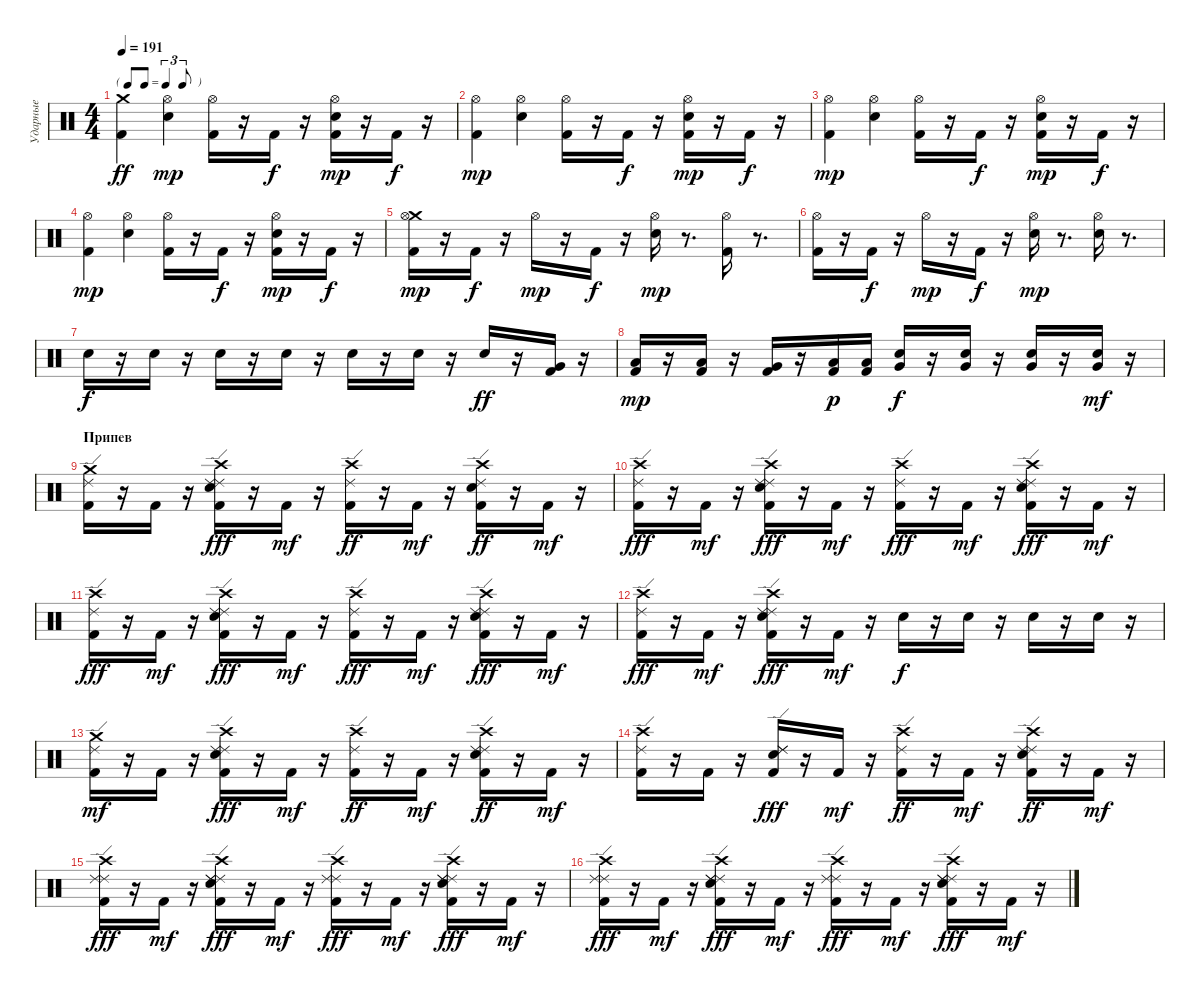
\track ("Ударные" "Ударные") {instrument percussion}
\staff {score}
\articulation defaults
\ts (4 4)
\tf triplet8th
\tempo 191
\clef neutral
\ks c
("Crash medium (hit)" "Kick (hit) 2").4{dy ff} ("Snare (hit) 2" "Hi-Hat (open)").4{dy mp} ("Kick (hit) 2" "Hi-Hat (open)").16 r.16 "Kick (hit) 2".16{dy f} r.16 ("Snare (hit) 2" "Kick (hit) 2" "Hi-Hat (open)").16{dy mp} r.16 "Kick (hit) 2".16{dy f} r.16 |
("Kick (hit) 2" "Hi-Hat (open)").4{dy mp} ("Snare (hit) 2" "Hi-Hat (open)").4 ("Kick (hit) 2" "Hi-Hat (open)").16 r.16 "Kick (hit) 2".16{dy f} r.16 ("Snare (hit) 2" "Kick (hit) 2" "Hi-Hat (open)").16{dy mp} r.16 "Kick (hit) 2".16{dy f} r.16 |
("Kick (hit) 2" "Hi-Hat (open)").4{dy mp} ("Snare (hit) 2" "Hi-Hat (open)").4 ("Kick (hit) 2" "Hi-Hat (open)").16 r.16 "Kick (hit) 2".16{dy f} r.16 ("Snare (hit) 2" "Kick (hit) 2" "Hi-Hat (open)").16{dy mp} r.16 "Kick (hit) 2".16{dy f} r.16 |
("Kick (hit) 2" "Hi-Hat (open)").4{dy mp} ("Snare (hit) 2" "Hi-Hat (open)").4 ("Kick (hit) 2" "Hi-Hat (open)").16 r.16 "Kick (hit) 2".16{dy f} r.16 ("Snare (hit) 2" "Kick (hit) 2" "Hi-Hat (open)").16{dy mp} r.16 "Kick (hit) 2".16{dy f} r.16 |
("Crash medium (hit)" "Kick (hit) 2" "Hi-Hat (open)").16{dy mp} r.16 "Kick (hit) 2".16{dy f} r.16 "Hi-Hat (open)".16{dy mp} r.16 "Kick (hit) 2".16{dy f} r.16 ("Snare (hit) 2" "Hi-Hat (open)").16{dy mp} r.8{d} ("Kick (hit) 2" "Hi-Hat (open)").16 r.8{d} |
("Kick (hit) 2" "Hi-Hat (open)").16 r.16 "Kick (hit) 2".16{dy f} r.16 "Hi-Hat (open)".16{dy mp} r.16 "Kick (hit) 2".16{dy f} r.16 ("Snare (hit) 2" "Hi-Hat (open)").16{dy mp} r.8{d} ("Snare (hit) 2" "Hi-Hat (open)").16 r.8{d} |
"Snare (hit) 2".16{dy f} r.16 "Snare (hit) 2".16 r.16 "Snare (hit) 2".16 r.16 "Snare (hit) 2".16 r.16 "Snare (hit) 2".16 r.16 "Snare (hit) 2".16 r.16 "Snare (hit) 2".16{dy ff} r.16 ("Very Low Tom (hit)" "Kick (hit) 2").16 r.16 |
("Low Tom (hit)" "Kick (hit) 2").16{dy mp} r.16 ("Low Tom (hit)" "Kick (hit) 2").16 r.16 ("Very Low Tom (hit)" "Kick (hit) 2").16 r.16 ("Low Floor Tom (hit)" "Kick (hit) 2").16{dy p} ("Low Floor Tom (hit)" "Kick (hit) 2").16 ("Snare (hit) 2" "Very Low Tom (hit)").16{dy f} r.16 ("Snare (hit) 2" "Very Low Tom (hit)").16 r.16 ("Snare (hit) 2" "Very Low Tom (hit)").16 r.16 ("Snare (hit) 2" "Very Low Tom (hit)").16{dy mf} r.16 |
\section ("" "Припев")
("Crash medium (hit)" "Kick (hit) 2" "Ride (edge) 2").16 r.16 "Kick (hit) 2".16 r.16 ("Crash high (hit)" "Snare (hit) 2" "Kick (hit) 2" "Ride (edge) 2" "Ride (edge) 2").16{dy fff} r.16 "Kick (hit) 2".16{dy mf} r.16 ("Crash high (hit)" "Kick (hit) 2" "Ride (edge) 2").16{dy ff} r.16 "Kick (hit) 2".16{dy mf} r.16 ("Crash high (hit)" "Snare (hit) 2" "Kick (hit) 2" "Ride (edge) 2").16{dy ff} r.16 "Kick (hit) 2".16{dy mf} r.16 |
("Crash high (hit)" "Kick (hit) 2" "Ride (edge) 2").16{dy fff} r.16 "Kick (hit) 2".16{dy mf} r.16 ("Crash high (hit)" "Snare (hit) 2" "Kick (hit) 2" "Ride (edge) 2" "Ride (edge) 2").16{dy fff} r.16 "Kick (hit) 2".16{dy mf} r.16 ("Crash high (hit)" "Kick (hit) 2" "Ride (edge) 2").16{dy fff} r.16 "Kick (hit) 2".16{dy mf} r.16 ("Crash high (hit)" "Snare (hit) 2" "Kick (hit) 2" "Ride (edge) 2" "Ride (edge) 2").16{dy fff} r.16 "Kick (hit) 2".16{dy mf} r.16 |
("Crash high (hit)" "Kick (hit) 2" "Ride (edge) 2").16{dy fff} r.16 "Kick (hit) 2".16{dy mf} r.16 ("Crash high (hit)" "Snare (hit) 2" "Kick (hit) 2" "Ride (edge) 2" "Ride (edge) 2").16{dy fff} r.16 "Kick (hit) 2".16{dy mf} r.16 ("Crash high (hit)" "Kick (hit) 2" "Ride (edge) 2").16{dy fff} r.16 "Kick (hit) 2".16{dy mf} r.16 ("Crash high (hit)" "Snare (hit) 2" "Kick (hit) 2" "Ride (edge) 2" "Ride (edge) 2").16{dy fff} r.16 "Kick (hit) 2".16{dy mf} r.16 |
("Crash high (hit)" "Kick (hit) 2" "Ride (edge) 2").16{dy fff} r.16 "Kick (hit) 2".16{dy mf} r.16 ("Crash high (hit)" "Snare (hit) 2" "Kick (hit) 2" "Ride (edge) 2" "Ride (edge) 2").16{dy fff} r.16 "Kick (hit) 2".16{dy mf} r.16 "Snare (hit) 2".16{dy f} r.16 "Snare (hit) 2".16 r.16 "Snare (hit) 2".16 r.16 "Snare (hit) 2".16 r.16 |
("Crash medium (hit)" "Kick (hit) 2" "Ride (edge) 2").16{dy mf} r.16 "Kick (hit) 2".16 r.16 ("Crash high (hit)" "Snare (hit) 2" "Kick (hit) 2" "Ride (edge) 2" "Ride (edge) 2").16{dy fff} r.16 "Kick (hit) 2".16{dy mf} r.16 ("Crash high (hit)" "Kick (hit) 2" "Ride (edge) 2").16{dy ff} r.16 "Kick (hit) 2".16{dy mf} r.16 ("Crash high (hit)" "Snare (hit) 2" "Kick (hit) 2" "Ride (edge) 2" "Ride (edge) 2").16{dy ff} r.16 "Kick (hit) 2".16{dy mf} r.16 |
("Crash high (hit)" "Kick (hit) 2" "Ride (edge) 2").16 r.16 "Kick (hit) 2".16 r.16 ("Snare (hit) 2" "Kick (hit) 2" "Ride (edge) 2" "Ride (edge) 2").16{dy fff} r.16 "Kick (hit) 2".16{dy mf} r.16 ("Crash high (hit)" "Kick (hit) 2" "Ride (edge) 2").16{dy ff} r.16 "Kick (hit) 2".16{dy mf} r.16 ("Crash high (hit)" "Snare (hit) 2" "Kick (hit) 2" "Ride (edge) 2" "Ride (edge) 2").16{dy ff} r.16 "Kick (hit) 2".16{dy mf} r.16 |
("Crash high (hit)" "Kick (hit) 2" "Ride (edge) 2" "Ride (edge) 2").16{dy fff} r.16 "Kick (hit) 2".16{dy mf} r.16 ("Crash high (hit)" "Snare (hit) 2" "Kick (hit) 2" "Ride (edge) 2" "Ride (edge) 2" "Ride (edge) 2").16{dy fff} r.16 "Kick (hit) 2".16{dy mf} r.16 ("Crash high (hit)" "Kick (hit) 2" "Ride (edge) 2" "Ride (edge) 2").16{dy fff} r.16 "Kick (hit) 2".16{dy mf} r.16 ("Crash high (hit)" "Snare (hit) 2" "Kick (hit) 2" "Ride (edge) 2" "Ride (edge) 2" "Ride (edge) 2").16{dy fff} r.16 "Kick (hit) 2".16{dy mf} r.16 |
("Crash high (hit)" "Kick (hit) 2" "Ride (edge) 2" "Ride (edge) 2").16{dy fff} r.16 "Kick (hit) 2".16{dy mf} r.16 ("Crash high (hit)" "Snare (hit) 2" "Kick (hit) 2" "Ride (edge) 2" "Ride (edge) 2" "Ride (edge) 2").16{dy fff} r.16 "Kick (hit) 2".16{dy mf} r.16 ("Crash high (hit)" "Kick (hit) 2" "Ride (edge) 2" "Ride (edge) 2").16{dy fff} r.16 "Kick (hit) 2".16{dy mf} r.16 ("Crash high (hit)" "Snare (hit) 2" "Kick (hit) 2" "Ride (edge) 2" "Ride (edge) 2" "Ride (edge) 2").16{dy fff} r.16 "Kick (hit) 2".16{dy mf} r.16
